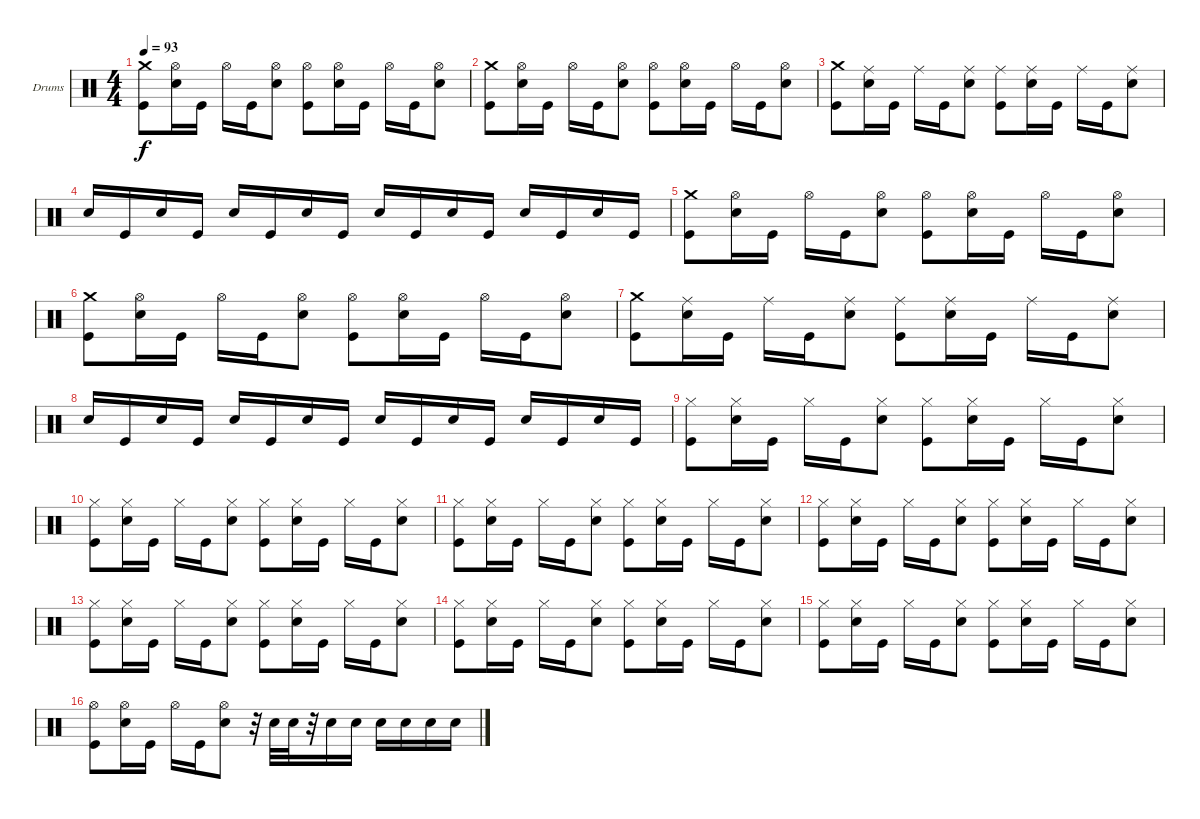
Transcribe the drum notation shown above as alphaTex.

\bracketExtendMode groupsimilarinstruments
\firstSystemTrackNameOrientation horizontal
\otherSystemsTrackNameOrientation horizontal
\track ("Drumkit" "Drums") {instrument percussion}
\staff {score}
\articulation defaults
\ts (4 4)
\tempo 93
\clef neutral
\ks c
("Kick (hit)" "Crash medium (hit)").8{dy f} ("Hi-Hat (open)" "Snare (hit) 2").16 "Kick (hit)".16 "Hi-Hat (open)".16 "Kick (hit)".16 ("Hi-Hat (open)" "Snare (hit) 2").8 ("Kick (hit)" "Hi-Hat (open)").8 ("Hi-Hat (open)" "Snare (hit) 2").16 "Kick (hit)".16 "Hi-Hat (open)".16 "Kick (hit)".16 ("Hi-Hat (open)" "Snare (hit) 2").8 |
("Kick (hit)" "Crash medium (hit)").8 ("Hi-Hat (open)" "Snare (hit) 2").16 "Kick (hit)".16 "Hi-Hat (open)".16 "Kick (hit)".16 ("Hi-Hat (open)" "Snare (hit) 2").8 ("Kick (hit)" "Hi-Hat (open)").8 ("Hi-Hat (open)" "Snare (hit) 2").16 "Kick (hit)".16 "Hi-Hat (open)".16 "Kick (hit)".16 ("Hi-Hat (open)" "Snare (hit) 2").8 |
("Kick (hit)" "Crash medium (hit)").8 ("Ride (middle)" "Snare (hit) 2").16 "Kick (hit)".16 "Ride (middle)".16 "Kick (hit)".16 ("Ride (middle)" "Snare (hit) 2").8 ("Kick (hit)" "Ride (middle)").8 ("Ride (middle)" "Snare (hit) 2").16 "Kick (hit)".16 "Ride (middle)".16 "Kick (hit)".16 ("Ride (middle)" "Snare (hit) 2").8 |
"Snare (hit) 2".16 "Kick (hit)".16 "Snare (hit) 2".16 "Kick (hit)".16 "Snare (hit) 2".16 "Kick (hit)".16 "Snare (hit) 2".16 "Kick (hit)".16 "Snare (hit) 2".16 "Kick (hit)".16 "Snare (hit) 2".16 "Kick (hit)".16 "Snare (hit) 2".16 "Kick (hit)".16 "Snare (hit) 2".16 "Kick (hit)".16 |
("Kick (hit)" "Crash medium (hit)").8 ("Hi-Hat (open)" "Snare (hit) 2").16 "Kick (hit)".16 "Hi-Hat (open)".16 "Kick (hit)".16 ("Hi-Hat (open)" "Snare (hit) 2").8 ("Kick (hit)" "Hi-Hat (open)").8 ("Hi-Hat (open)" "Snare (hit) 2").16 "Kick (hit)".16 "Hi-Hat (open)".16 "Kick (hit)".16 ("Hi-Hat (open)" "Snare (hit) 2").8 |
("Kick (hit)" "Crash medium (hit)").8 ("Hi-Hat (open)" "Snare (hit) 2").16 "Kick (hit)".16 "Hi-Hat (open)".16 "Kick (hit)".16 ("Hi-Hat (open)" "Snare (hit) 2").8 ("Kick (hit)" "Hi-Hat (open)").8 ("Hi-Hat (open)" "Snare (hit) 2").16 "Kick (hit)".16 "Hi-Hat (open)".16 "Kick (hit)".16 ("Hi-Hat (open)" "Snare (hit) 2").8 |
("Kick (hit)" "Crash medium (hit)").8 ("Ride (middle)" "Snare (hit) 2").16 "Kick (hit)".16 "Ride (middle)".16 "Kick (hit)".16 ("Ride (middle)" "Snare (hit) 2").8 ("Kick (hit)" "Ride (middle)").8 ("Ride (middle)" "Snare (hit) 2").16 "Kick (hit)".16 "Ride (middle)".16 "Kick (hit)".16 ("Ride (middle)" "Snare (hit) 2").8 |
"Snare (hit) 2".16 "Kick (hit)".16 "Snare (hit) 2".16 "Kick (hit)".16 "Snare (hit) 2".16 "Kick (hit)".16 "Snare (hit) 2".16 "Kick (hit)".16 "Snare (hit) 2".16 "Kick (hit)".16 "Snare (hit) 2".16 "Kick (hit)".16 "Snare (hit) 2".16 "Kick (hit)".16 "Snare (hit) 2".16 "Kick (hit)".16 |
("Kick (hit)" "Hi-Hat (closed)").8 ("Hi-Hat (closed)" "Snare (hit) 2").16 "Kick (hit)".16 "Hi-Hat (closed)".16 "Kick (hit)".16 ("Hi-Hat (closed)" "Snare (hit) 2").8 ("Kick (hit)" "Hi-Hat (closed)").8 ("Hi-Hat (closed)" "Snare (hit) 2").16 "Kick (hit)".16 "Hi-Hat (closed)".16 "Kick (hit)".16 ("Hi-Hat (closed)" "Snare (hit) 2").8 |
("Kick (hit)" "Hi-Hat (closed)").8 ("Hi-Hat (closed)" "Snare (hit) 2").16 "Kick (hit)".16 "Hi-Hat (closed)".16 "Kick (hit)".16 ("Hi-Hat (closed)" "Snare (hit) 2").8 ("Kick (hit)" "Hi-Hat (closed)").8 ("Hi-Hat (closed)" "Snare (hit) 2").16 "Kick (hit)".16 "Hi-Hat (closed)".16 "Kick (hit)".16 ("Hi-Hat (closed)" "Snare (hit) 2").8 |
("Kick (hit)" "Hi-Hat (closed)").8 ("Hi-Hat (closed)" "Snare (hit) 2").16 "Kick (hit)".16 "Hi-Hat (closed)".16 "Kick (hit)".16 ("Hi-Hat (closed)" "Snare (hit) 2").8 ("Kick (hit)" "Hi-Hat (closed)").8 ("Hi-Hat (closed)" "Snare (hit) 2").16 "Kick (hit)".16 "Hi-Hat (closed)".16 "Kick (hit)".16 ("Hi-Hat (closed)" "Snare (hit) 2").8 |
("Kick (hit)" "Hi-Hat (closed)").8 ("Hi-Hat (closed)" "Snare (hit) 2").16 "Kick (hit)".16 "Hi-Hat (closed)".16 "Kick (hit)".16 ("Hi-Hat (closed)" "Snare (hit) 2").8 ("Kick (hit)" "Hi-Hat (closed)").8 ("Hi-Hat (closed)" "Snare (hit) 2").16 "Kick (hit)".16 "Hi-Hat (closed)".16 "Kick (hit)".16 ("Hi-Hat (closed)" "Snare (hit) 2").8 |
("Kick (hit)" "Hi-Hat (closed)").8 ("Hi-Hat (closed)" "Snare (hit) 2").16 "Kick (hit)".16 "Hi-Hat (closed)".16 "Kick (hit)".16 ("Hi-Hat (closed)" "Snare (hit) 2").8 ("Kick (hit)" "Hi-Hat (closed)").8 ("Hi-Hat (closed)" "Snare (hit) 2").16 "Kick (hit)".16 "Hi-Hat (closed)".16 "Kick (hit)".16 ("Hi-Hat (closed)" "Snare (hit) 2").8 |
("Kick (hit)" "Hi-Hat (closed)").8 ("Hi-Hat (closed)" "Snare (hit) 2").16 "Kick (hit)".16 "Hi-Hat (closed)".16 "Kick (hit)".16 ("Hi-Hat (closed)" "Snare (hit) 2").8 ("Kick (hit)" "Hi-Hat (closed)").8 ("Hi-Hat (closed)" "Snare (hit) 2").16 "Kick (hit)".16 "Hi-Hat (closed)".16 "Kick (hit)".16 ("Hi-Hat (closed)" "Snare (hit) 2").8 |
("Kick (hit)" "Hi-Hat (closed)").8 ("Hi-Hat (closed)" "Snare (hit) 2").16 "Kick (hit)".16 "Hi-Hat (closed)".16 "Kick (hit)".16 ("Hi-Hat (closed)" "Snare (hit) 2").8 ("Kick (hit)" "Hi-Hat (closed)").8 ("Hi-Hat (closed)" "Snare (hit) 2").16 "Kick (hit)".16 "Hi-Hat (closed)".16 "Kick (hit)".16 ("Hi-Hat (closed)" "Snare (hit) 2").8 |
("Kick (hit)" "Hi-Hat (open)").8 ("Hi-Hat (open)" "Snare (hit) 2").16 "Kick (hit)".16 "Hi-Hat (open)".16 "Kick (hit)".16 ("Hi-Hat (open)" "Snare (hit) 2").8 r.32 "Snare (hit) 2".32 "Snare (hit) 2".32 r.32 "Snare (hit) 2".16 "Snare (hit) 2".16 "Snare (hit) 2".16 "Snare (hit) 2".16 "Snare (hit) 2".16 "Snare (hit) 2".16
